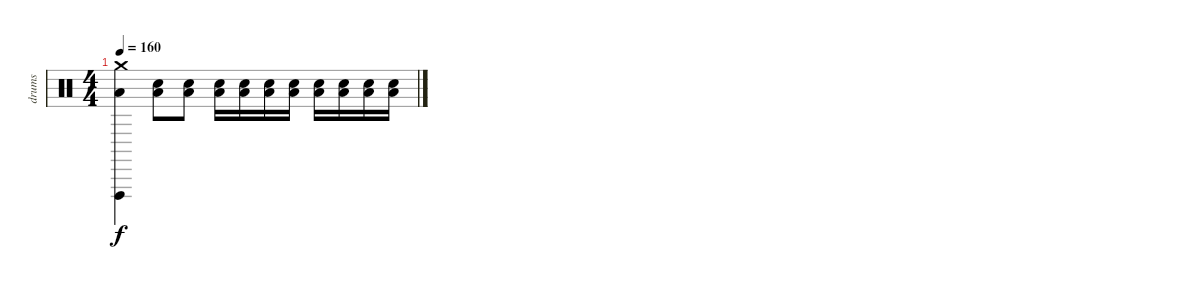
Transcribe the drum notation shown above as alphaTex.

\track ("drums" "drums") {instrument percussion}
\staff {score}
\articulation defaults
\ts (4 4)
\tempo 160
\clef neutral
\ks c
("Crash medium (hit)" "Vibraslap (hit)" "Low Floor Tom (hit)").4{dy f} ("Electric Snare (hit)" "Low Floor Tom (hit)").8 ("Electric Snare (hit)" "Low Floor Tom (hit)").8 ("Electric Snare (hit)" "Low Floor Tom (hit)").16 ("Electric Snare (hit)" "Low Floor Tom (hit)").16 ("Electric Snare (hit)" "Low Floor Tom (hit)").16 ("Electric Snare (hit)" "Low Floor Tom (hit)").16 ("Electric Snare (hit)" "Low Floor Tom (hit)").16 ("Electric Snare (hit)" "Low Floor Tom (hit)").16 ("Electric Snare (hit)" "Low Floor Tom (hit)").16 ("Electric Snare (hit)" "Low Floor Tom (hit)").16
